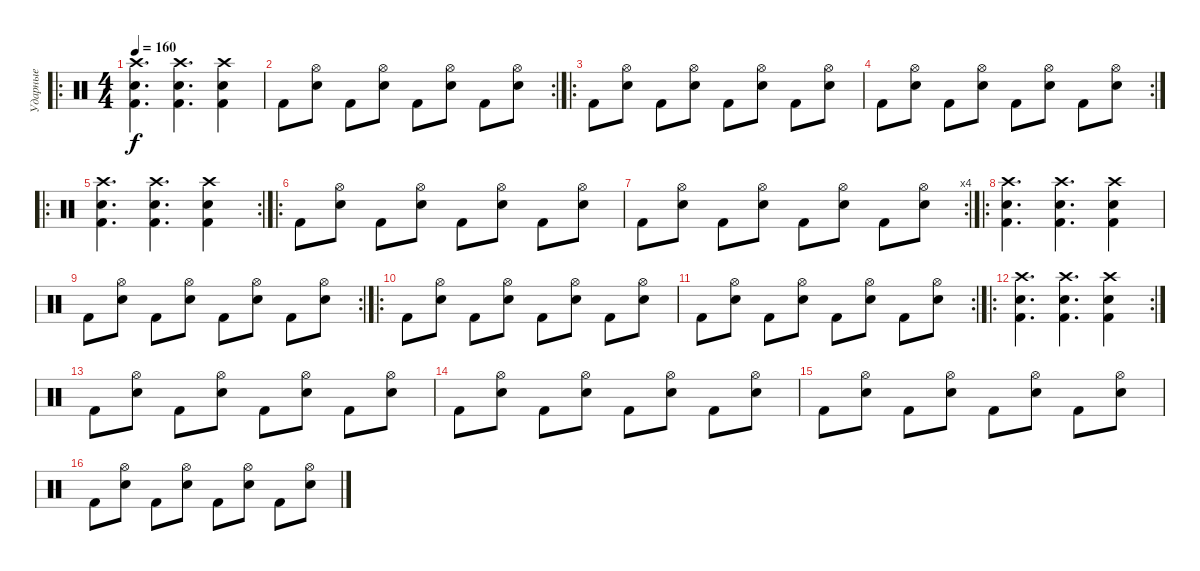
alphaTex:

\track ("Ударные" "Ударные") {instrument percussion}
\staff {score}
\articulation defaults
\ro
\ts (4 4)
\tempo 160
\clef neutral
\ks c
("Crash high (hit)" "Snare (hit) 2" "Kick (hit) 2").4{d dy f} ("Crash high (hit)" "Snare (hit) 2" "Kick (hit) 2").4{d} ("Crash high (hit)" "Snare (hit) 2" "Kick (hit) 2").4 |
\rc 2 "Kick (hit) 2".8
("Hi-Hat (open)" "Snare (hit) 2").8 "Kick (hit) 2".8 ("Hi-Hat (open)" "Snare (hit) 2").8 "Kick (hit) 2".8 ("Hi-Hat (open)" "Snare (hit) 2").8 "Kick (hit) 2".8 ("Hi-Hat (open)" "Snare (hit) 2").8 |
\ro "Kick (hit) 2".8
("Hi-Hat (open)" "Snare (hit) 2").8 "Kick (hit) 2".8 ("Hi-Hat (open)" "Snare (hit) 2").8 "Kick (hit) 2".8 ("Hi-Hat (open)" "Snare (hit) 2").8 "Kick (hit) 2".8 ("Hi-Hat (open)" "Snare (hit) 2").8 |
\rc 2 "Kick (hit) 2".8
("Hi-Hat (open)" "Snare (hit) 2").8 "Kick (hit) 2".8 ("Hi-Hat (open)" "Snare (hit) 2").8 "Kick (hit) 2".8 ("Hi-Hat (open)" "Snare (hit) 2").8 "Kick (hit) 2".8 ("Hi-Hat (open)" "Snare (hit) 2").8 |
\ro
\rc 2
("Crash high (hit)" "Snare (hit) 2" "Kick (hit) 2").4{d} ("Crash high (hit)" "Snare (hit) 2" "Kick (hit) 2").4{d} ("Crash high (hit)" "Snare (hit) 2" "Kick (hit) 2").4 |
\ro "Kick (hit) 2".8
("Hi-Hat (open)" "Snare (hit) 2").8 "Kick (hit) 2".8 ("Hi-Hat (open)" "Snare (hit) 2").8 "Kick (hit) 2".8 ("Hi-Hat (open)" "Snare (hit) 2").8 "Kick (hit) 2".8 ("Hi-Hat (open)" "Snare (hit) 2").8 |
\rc 4 "Kick (hit) 2".8
("Hi-Hat (open)" "Snare (hit) 2").8 "Kick (hit) 2".8 ("Hi-Hat (open)" "Snare (hit) 2").8 "Kick (hit) 2".8 ("Hi-Hat (open)" "Snare (hit) 2").8 "Kick (hit) 2".8 ("Hi-Hat (open)" "Snare (hit) 2").8 |
\ro
("Crash high (hit)" "Snare (hit) 2" "Kick (hit) 2").4{d} ("Crash high (hit)" "Snare (hit) 2" "Kick (hit) 2").4{d} ("Crash high (hit)" "Snare (hit) 2" "Kick (hit) 2").4 |
\rc 2 "Kick (hit) 2".8
("Hi-Hat (open)" "Snare (hit) 2").8 "Kick (hit) 2".8 ("Hi-Hat (open)" "Snare (hit) 2").8 "Kick (hit) 2".8 ("Hi-Hat (open)" "Snare (hit) 2").8 "Kick (hit) 2".8 ("Hi-Hat (open)" "Snare (hit) 2").8 |
\ro "Kick (hit) 2".8
("Hi-Hat (open)" "Snare (hit) 2").8 "Kick (hit) 2".8 ("Hi-Hat (open)" "Snare (hit) 2").8 "Kick (hit) 2".8 ("Hi-Hat (open)" "Snare (hit) 2").8 "Kick (hit) 2".8 ("Hi-Hat (open)" "Snare (hit) 2").8 |
\rc 2 "Kick (hit) 2".8
("Hi-Hat (open)" "Snare (hit) 2").8 "Kick (hit) 2".8 ("Hi-Hat (open)" "Snare (hit) 2").8 "Kick (hit) 2".8 ("Hi-Hat (open)" "Snare (hit) 2").8 "Kick (hit) 2".8 ("Hi-Hat (open)" "Snare (hit) 2").8 |
\ro
\rc 2
("Crash high (hit)" "Snare (hit) 2" "Kick (hit) 2").4{d} ("Crash high (hit)" "Snare (hit) 2" "Kick (hit) 2").4{d} ("Crash high (hit)" "Snare (hit) 2" "Kick (hit) 2").4 |
"Kick (hit) 2".8 ("Hi-Hat (open)" "Snare (hit) 2").8 "Kick (hit) 2".8 ("Hi-Hat (open)" "Snare (hit) 2").8 "Kick (hit) 2".8 ("Hi-Hat (open)" "Snare (hit) 2").8 "Kick (hit) 2".8 ("Hi-Hat (open)" "Snare (hit) 2").8 |
"Kick (hit) 2".8 ("Hi-Hat (open)" "Snare (hit) 2").8 "Kick (hit) 2".8 ("Hi-Hat (open)" "Snare (hit) 2").8 "Kick (hit) 2".8 ("Hi-Hat (open)" "Snare (hit) 2").8 "Kick (hit) 2".8 ("Hi-Hat (open)" "Snare (hit) 2").8 |
"Kick (hit) 2".8 ("Hi-Hat (open)" "Snare (hit) 2").8 "Kick (hit) 2".8 ("Hi-Hat (open)" "Snare (hit) 2").8 "Kick (hit) 2".8 ("Hi-Hat (open)" "Snare (hit) 2").8 "Kick (hit) 2".8 ("Hi-Hat (open)" "Snare (hit) 2").8 |
"Kick (hit) 2".8 ("Hi-Hat (open)" "Snare (hit) 2").8 "Kick (hit) 2".8 ("Hi-Hat (open)" "Snare (hit) 2").8 "Kick (hit) 2".8 ("Hi-Hat (open)" "Snare (hit) 2").8 "Kick (hit) 2".8 ("Hi-Hat (open)" "Snare (hit) 2").8
